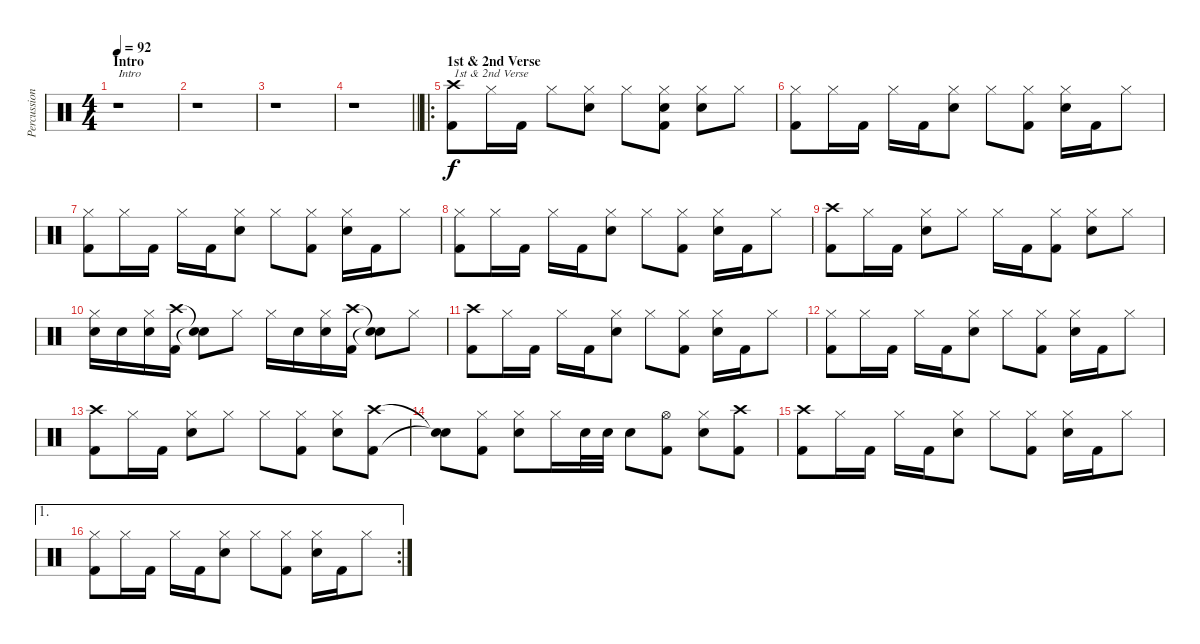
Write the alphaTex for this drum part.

\track ("Percussions" "Percussion") {instrument percussion}
\staff {score}
\articulation defaults
\ts (4 4)
\section ("" "Intro")
\tempo 92
\clef neutral
\ks c
r.1{txt "Intro" dy f} |
r.1 |
r.1 |
\barLineRight lightlight
r.1 |
\ro
\section ("" "1st & 2nd Verse")
("Crash high (hit)" "Kick (hit) 2").8{txt "1st & 2nd Verse"} "Hi-Hat (closed)".16 "Kick (hit) 2".16 "Hi-Hat (closed)".8 ("Hi-Hat (closed)" "Snare (hit) 2").8 "Hi-Hat (closed)".8 ("Hi-Hat (closed)" "Snare (hit) 2" "Kick (hit) 2").8 ("Hi-Hat (closed)" "Snare (hit) 2").8 "Hi-Hat (closed)".8 |
("Hi-Hat (closed)" "Kick (hit) 2").8 "Hi-Hat (closed)".16 "Kick (hit) 2".16 "Hi-Hat (closed)".16 "Kick (hit) 2".16 ("Hi-Hat (closed)" "Snare (hit) 2").8 "Hi-Hat (closed)".8 ("Hi-Hat (closed)" "Kick (hit) 2").8 ("Hi-Hat (closed)" "Snare (hit) 2").16 "Kick (hit) 2".16 "Hi-Hat (closed)".8 |
("Hi-Hat (closed)" "Kick (hit) 2").8 "Hi-Hat (closed)".16 "Kick (hit) 2".16 "Hi-Hat (closed)".16 "Kick (hit) 2".16 ("Hi-Hat (closed)" "Snare (hit) 2").8 "Hi-Hat (closed)".8 ("Hi-Hat (closed)" "Kick (hit) 2").8 ("Hi-Hat (closed)" "Snare (hit) 2").16 "Kick (hit) 2".16 "Hi-Hat (closed)".8 |
("Hi-Hat (closed)" "Kick (hit) 2").8 "Hi-Hat (closed)".16 "Kick (hit) 2".16 "Hi-Hat (closed)".16 "Kick (hit) 2".16 ("Hi-Hat (closed)" "Snare (hit) 2").8 "Hi-Hat (closed)".8 ("Hi-Hat (closed)" "Kick (hit) 2").8 ("Hi-Hat (closed)" "Snare (hit) 2").16 "Kick (hit) 2".16 "Hi-Hat (closed)".8 |
("Crash high (hit)" "Kick (hit) 2").8 "Hi-Hat (closed)".16 "Kick (hit) 2".16 ("Hi-Hat (closed)" "Snare (hit) 2").8 "Hi-Hat (closed)".8 "Hi-Hat (closed)".16 "Kick (hit) 2".16 ("Hi-Hat (closed)" "Kick (hit) 2").8 ("Hi-Hat (closed)" "Snare (hit) 2").8 "Hi-Hat (closed)".8 |
("Hi-Hat (closed)" "Snare (hit) 2").16 "Snare (hit) 2".16 ("Hi-Hat (closed)" "Snare (hit) 2").16 ("Crash high (hit)" "Kick (hit) 2").16 ("Snare (hit)"{t} "Snare (hit)"{t}).8 "Hi-Hat (closed)".8 "Hi-Hat (closed)".16 "Snare (hit) 2".16 ("Hi-Hat (closed)" "Snare (hit) 2").16 ("Crash high (hit)" "Kick (hit) 2").16 ("Snare (hit)"{t} "Snare (hit)"{t}).8 "Hi-Hat (closed)".8 |
("Crash high (hit)" "Kick (hit) 2").8 "Hi-Hat (closed)".16 "Kick (hit) 2".16 "Hi-Hat (closed)".16 "Kick (hit) 2".16 ("Hi-Hat (closed)" "Snare (hit) 2").8 "Hi-Hat (closed)".8 ("Hi-Hat (closed)" "Kick (hit) 2").8 ("Hi-Hat (closed)" "Snare (hit) 2").16 "Kick (hit) 2".16 "Hi-Hat (closed)".8 |
("Hi-Hat (closed)" "Kick (hit) 2").8 "Hi-Hat (closed)".16 "Kick (hit) 2".16 "Hi-Hat (closed)".16 "Kick (hit) 2".16 ("Hi-Hat (closed)" "Snare (hit) 2").8 "Hi-Hat (closed)".8 ("Hi-Hat (closed)" "Kick (hit) 2").8 ("Hi-Hat (closed)" "Snare (hit) 2").16 "Kick (hit) 2".16 "Hi-Hat (closed)".8 |
("Crash high (hit)" "Kick (hit) 2").8 "Hi-Hat (closed)".16 "Kick (hit) 2".16 ("Hi-Hat (closed)" "Snare (hit) 2").8 "Hi-Hat (closed)".8 "Hi-Hat (closed)".8 ("Hi-Hat (closed)" "Kick (hit) 2").8 ("Hi-Hat (closed)" "Snare (hit) 2").8 ("Crash high (hit)" "Kick (hit) 2").8 |
("Snare (hit)"{t} "Snare (hit)"{t}).8 ("Hi-Hat (closed)" "Kick (hit) 2").8 ("Hi-Hat (closed)" "Snare (hit) 2").8 "Hi-Hat (closed)".16 "Snare (hit) 2".32 "Snare (hit) 2".32 "Snare (hit) 2".8 ("Hi-Hat (open)" "Kick (hit) 2").8 ("Hi-Hat (closed)" "Snare (hit) 2").8 ("Crash high (hit)" "Kick (hit) 2").8 |
("Crash high (hit)" "Kick (hit) 2").8 "Hi-Hat (closed)".16 "Kick (hit) 2".16 "Hi-Hat (closed)".16 "Kick (hit) 2".16 ("Hi-Hat (closed)" "Snare (hit) 2").8 "Hi-Hat (closed)".8 ("Hi-Hat (closed)" "Kick (hit) 2").8 ("Hi-Hat (closed)" "Snare (hit) 2").16 "Kick (hit) 2".16 "Hi-Hat (closed)".8 |
\ae 1
\rc 2
("Hi-Hat (closed)" "Kick (hit) 2").8 "Hi-Hat (closed)".16 "Kick (hit) 2".16 "Hi-Hat (closed)".16 "Kick (hit) 2".16 ("Hi-Hat (closed)" "Snare (hit) 2").8 "Hi-Hat (closed)".8 ("Hi-Hat (closed)" "Kick (hit) 2").8 ("Hi-Hat (closed)" "Snare (hit) 2").16 "Kick (hit) 2".16 "Hi-Hat (closed)".8
